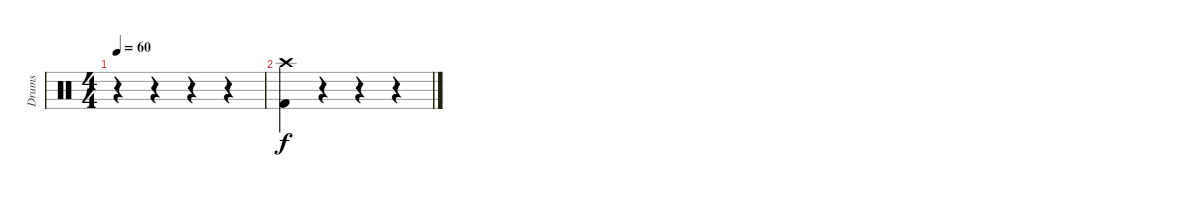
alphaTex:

\track ("Drums" "Drums") {instrument percussion}
\staff {score}
\articulation defaults
\ts (4 4)
\tempo 60
\clef neutral
\ks c
r.4{dy f} r.4 r.4 r.4 |
("Crash high (hit)" "Kick (hit) 2").4 r.4 r.4 r.4
